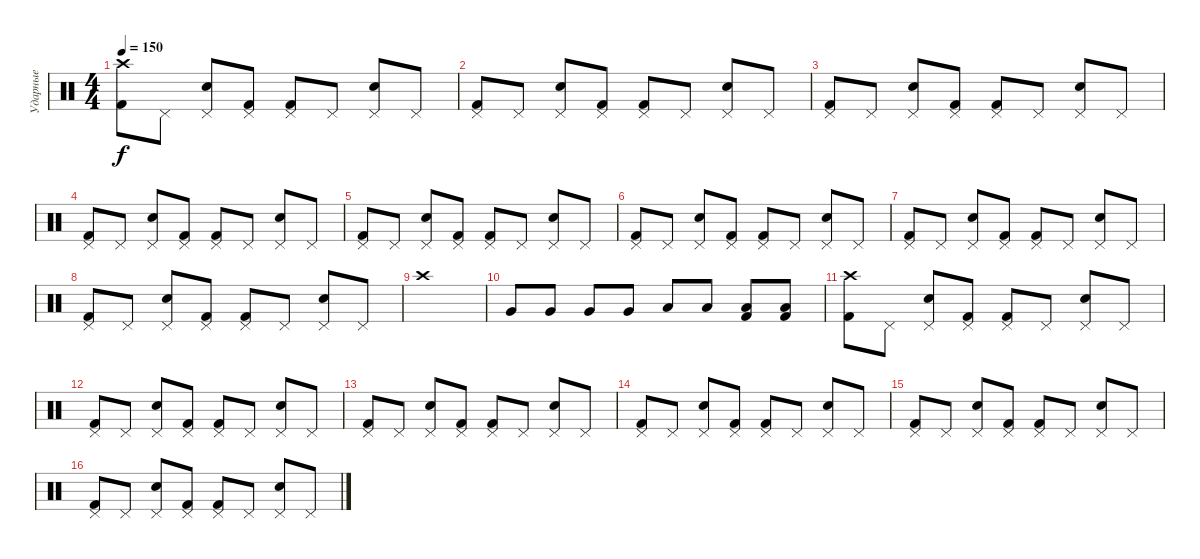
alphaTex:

\track ("Ударные" "Ударные") {instrument percussion}
\staff {score}
\articulation defaults
\ts (4 4)
\tempo 150
\clef neutral
\ks c
("Crash high (hit)" "Kick (hit) 2").8{dy f} "Pedal Hi-Hat (hit)".8 ("Pedal Hi-Hat (hit)" "Snare (hit) 2").8 ("Pedal Hi-Hat (hit)" "Kick (hit) 2").8 ("Pedal Hi-Hat (hit)" "Kick (hit) 2").8 "Pedal Hi-Hat (hit)".8 ("Pedal Hi-Hat (hit)" "Snare (hit) 2").8 "Pedal Hi-Hat (hit)".8 |
("Pedal Hi-Hat (hit)" "Kick (hit) 2").8 "Pedal Hi-Hat (hit)".8 ("Pedal Hi-Hat (hit)" "Snare (hit) 2").8 ("Pedal Hi-Hat (hit)" "Kick (hit) 2").8 ("Pedal Hi-Hat (hit)" "Kick (hit) 2").8 "Pedal Hi-Hat (hit)".8 ("Pedal Hi-Hat (hit)" "Snare (hit) 2").8 "Pedal Hi-Hat (hit)".8 |
("Pedal Hi-Hat (hit)" "Kick (hit) 2").8 "Pedal Hi-Hat (hit)".8 ("Pedal Hi-Hat (hit)" "Snare (hit) 2").8 ("Pedal Hi-Hat (hit)" "Kick (hit) 2").8 ("Pedal Hi-Hat (hit)" "Kick (hit) 2").8 "Pedal Hi-Hat (hit)".8 ("Pedal Hi-Hat (hit)" "Snare (hit) 2").8 "Pedal Hi-Hat (hit)".8 |
("Pedal Hi-Hat (hit)" "Kick (hit) 2").8 "Pedal Hi-Hat (hit)".8 ("Pedal Hi-Hat (hit)" "Snare (hit) 2").8 ("Pedal Hi-Hat (hit)" "Kick (hit) 2").8 ("Pedal Hi-Hat (hit)" "Kick (hit) 2").8 "Pedal Hi-Hat (hit)".8 ("Pedal Hi-Hat (hit)" "Snare (hit) 2").8 "Pedal Hi-Hat (hit)".8 |
("Pedal Hi-Hat (hit)" "Kick (hit) 2").8 "Pedal Hi-Hat (hit)".8 ("Pedal Hi-Hat (hit)" "Snare (hit) 2").8 ("Pedal Hi-Hat (hit)" "Kick (hit) 2").8 ("Pedal Hi-Hat (hit)" "Kick (hit) 2").8 "Pedal Hi-Hat (hit)".8 ("Pedal Hi-Hat (hit)" "Snare (hit) 2").8 "Pedal Hi-Hat (hit)".8 |
("Pedal Hi-Hat (hit)" "Kick (hit) 2").8 "Pedal Hi-Hat (hit)".8 ("Pedal Hi-Hat (hit)" "Snare (hit) 2").8 ("Pedal Hi-Hat (hit)" "Kick (hit) 2").8 ("Pedal Hi-Hat (hit)" "Kick (hit) 2").8 "Pedal Hi-Hat (hit)".8 ("Pedal Hi-Hat (hit)" "Snare (hit) 2").8 "Pedal Hi-Hat (hit)".8 |
("Pedal Hi-Hat (hit)" "Kick (hit) 2").8 "Pedal Hi-Hat (hit)".8 ("Pedal Hi-Hat (hit)" "Snare (hit) 2").8 ("Pedal Hi-Hat (hit)" "Kick (hit) 2").8 ("Pedal Hi-Hat (hit)" "Kick (hit) 2").8 "Pedal Hi-Hat (hit)".8 ("Pedal Hi-Hat (hit)" "Snare (hit) 2").8 "Pedal Hi-Hat (hit)".8 |
("Pedal Hi-Hat (hit)" "Kick (hit) 2").8 "Pedal Hi-Hat (hit)".8 ("Pedal Hi-Hat (hit)" "Snare (hit) 2").8 ("Pedal Hi-Hat (hit)" "Kick (hit) 2").8 ("Pedal Hi-Hat (hit)" "Kick (hit) 2").8 "Pedal Hi-Hat (hit)".8 ("Pedal Hi-Hat (hit)" "Snare (hit) 2").8 "Pedal Hi-Hat (hit)".8 |
"Crash high (hit)".1 |
"Very Low Tom (hit)".8 "Very Low Tom (hit)".8 "Very Low Tom (hit)".8 "Very Low Tom (hit)".8 "Low Floor Tom (hit)".8 "Low Floor Tom (hit)".8 ("Low Floor Tom (hit)" "Kick (hit) 2").8 ("Low Floor Tom (hit)" "Kick (hit) 2").8 |
("Crash high (hit)" "Kick (hit) 2").8 "Pedal Hi-Hat (hit)".8 ("Pedal Hi-Hat (hit)" "Snare (hit) 2").8 ("Pedal Hi-Hat (hit)" "Kick (hit) 2").8 ("Pedal Hi-Hat (hit)" "Kick (hit) 2").8 "Pedal Hi-Hat (hit)".8 ("Pedal Hi-Hat (hit)" "Snare (hit) 2").8 "Pedal Hi-Hat (hit)".8 |
("Pedal Hi-Hat (hit)" "Kick (hit) 2").8 "Pedal Hi-Hat (hit)".8 ("Pedal Hi-Hat (hit)" "Snare (hit) 2").8 ("Pedal Hi-Hat (hit)" "Kick (hit) 2").8 ("Pedal Hi-Hat (hit)" "Kick (hit) 2").8 "Pedal Hi-Hat (hit)".8 ("Pedal Hi-Hat (hit)" "Snare (hit) 2").8 "Pedal Hi-Hat (hit)".8 |
("Pedal Hi-Hat (hit)" "Kick (hit) 2").8 "Pedal Hi-Hat (hit)".8 ("Pedal Hi-Hat (hit)" "Snare (hit) 2").8 ("Pedal Hi-Hat (hit)" "Kick (hit) 2").8 ("Pedal Hi-Hat (hit)" "Kick (hit) 2").8 "Pedal Hi-Hat (hit)".8 ("Pedal Hi-Hat (hit)" "Snare (hit) 2").8 "Pedal Hi-Hat (hit)".8 |
("Pedal Hi-Hat (hit)" "Kick (hit) 2").8 "Pedal Hi-Hat (hit)".8 ("Pedal Hi-Hat (hit)" "Snare (hit) 2").8 ("Pedal Hi-Hat (hit)" "Kick (hit) 2").8 ("Pedal Hi-Hat (hit)" "Kick (hit) 2").8 "Pedal Hi-Hat (hit)".8 ("Pedal Hi-Hat (hit)" "Snare (hit) 2").8 "Pedal Hi-Hat (hit)".8 |
("Pedal Hi-Hat (hit)" "Kick (hit) 2").8 "Pedal Hi-Hat (hit)".8 ("Pedal Hi-Hat (hit)" "Snare (hit) 2").8 ("Pedal Hi-Hat (hit)" "Kick (hit) 2").8 ("Pedal Hi-Hat (hit)" "Kick (hit) 2").8 "Pedal Hi-Hat (hit)".8 ("Pedal Hi-Hat (hit)" "Snare (hit) 2").8 "Pedal Hi-Hat (hit)".8 |
("Pedal Hi-Hat (hit)" "Kick (hit) 2").8 "Pedal Hi-Hat (hit)".8 ("Pedal Hi-Hat (hit)" "Snare (hit) 2").8 ("Pedal Hi-Hat (hit)" "Kick (hit) 2").8 ("Pedal Hi-Hat (hit)" "Kick (hit) 2").8 "Pedal Hi-Hat (hit)".8 ("Pedal Hi-Hat (hit)" "Snare (hit) 2").8 "Pedal Hi-Hat (hit)".8
